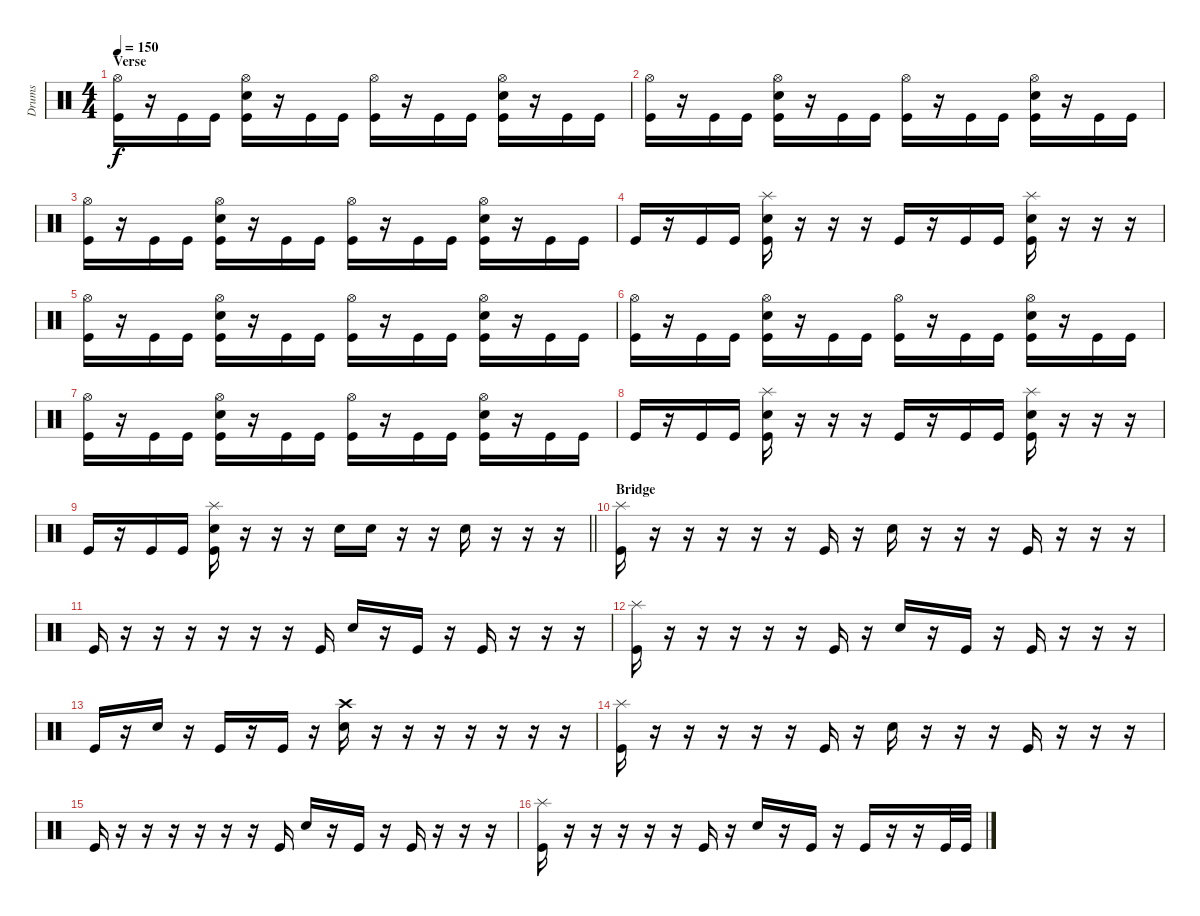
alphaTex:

\track ("Drums" "Drums") {instrument percussion}
\staff
\articulation defaults
\ts (4 4)
\section ("" "Verse")
\tempo 150
\clef neutral
\ks c
("Hi-Hat (open)" "Kick (hit)").16{dy f} r.16 "Kick (hit)".16 "Kick (hit)".16 ("Hi-Hat (open)" "Snare (hit) 2" "Kick (hit)").16 r.16 "Kick (hit)".16 "Kick (hit)".16 ("Hi-Hat (open)" "Kick (hit)").16 r.16 "Kick (hit)".16 "Kick (hit)".16 ("Hi-Hat (open)" "Snare (hit) 2" "Kick (hit)").16 r.16 "Kick (hit)".16 "Kick (hit)".16 |
("Hi-Hat (open)" "Kick (hit)").16 r.16 "Kick (hit)".16 "Kick (hit)".16 ("Hi-Hat (open)" "Snare (hit) 2" "Kick (hit)").16 r.16 "Kick (hit)".16 "Kick (hit)".16 ("Hi-Hat (open)" "Kick (hit)").16 r.16 "Kick (hit)".16 "Kick (hit)".16 ("Hi-Hat (open)" "Snare (hit) 2" "Kick (hit)").16 r.16 "Kick (hit)".16 "Kick (hit)".16 |
("Hi-Hat (open)" "Kick (hit)").16 r.16 "Kick (hit)".16 "Kick (hit)".16 ("Hi-Hat (open)" "Snare (hit) 2" "Kick (hit)").16 r.16 "Kick (hit)".16 "Kick (hit)".16 ("Hi-Hat (open)" "Kick (hit)").16 r.16 "Kick (hit)".16 "Kick (hit)".16 ("Hi-Hat (open)" "Snare (hit) 2" "Kick (hit)").16 r.16 "Kick (hit)".16 "Kick (hit)".16 |
"Kick (hit)".16 r.16 "Kick (hit)".16 "Kick (hit)".16 ("Splash (hit)" "Snare (hit) 2" "Kick (hit)").16 r.16 r.16 r.16 "Kick (hit)".16 r.16 "Kick (hit)".16 "Kick (hit)".16 ("Splash (hit)" "Snare (hit) 2" "Kick (hit)").16 r.16 r.16 r.16 |
("Hi-Hat (open)" "Kick (hit)").16 r.16 "Kick (hit)".16 "Kick (hit)".16 ("Hi-Hat (open)" "Snare (hit) 2" "Kick (hit)").16 r.16 "Kick (hit)".16 "Kick (hit)".16 ("Hi-Hat (open)" "Kick (hit)").16 r.16 "Kick (hit)".16 "Kick (hit)".16 ("Hi-Hat (open)" "Snare (hit) 2" "Kick (hit)").16 r.16 "Kick (hit)".16 "Kick (hit)".16 |
("Hi-Hat (open)" "Kick (hit)").16 r.16 "Kick (hit)".16 "Kick (hit)".16 ("Hi-Hat (open)" "Snare (hit) 2" "Kick (hit)").16 r.16 "Kick (hit)".16 "Kick (hit)".16 ("Hi-Hat (open)" "Kick (hit)").16 r.16 "Kick (hit)".16 "Kick (hit)".16 ("Hi-Hat (open)" "Snare (hit) 2" "Kick (hit)").16 r.16 "Kick (hit)".16 "Kick (hit)".16 |
("Hi-Hat (open)" "Kick (hit)").16 r.16 "Kick (hit)".16 "Kick (hit)".16 ("Hi-Hat (open)" "Snare (hit) 2" "Kick (hit)").16 r.16 "Kick (hit)".16 "Kick (hit)".16 ("Hi-Hat (open)" "Kick (hit)").16 r.16 "Kick (hit)".16 "Kick (hit)".16 ("Hi-Hat (open)" "Snare (hit) 2" "Kick (hit)").16 r.16 "Kick (hit)".16 "Kick (hit)".16 |
"Kick (hit)".16 r.16 "Kick (hit)".16 "Kick (hit)".16 ("Splash (hit)" "Snare (hit) 2" "Kick (hit)").16 r.16 r.16 r.16 "Kick (hit)".16 r.16 "Kick (hit)".16 "Kick (hit)".16 ("Splash (hit)" "Snare (hit) 2" "Kick (hit)").16 r.16 r.16 r.16 |
\barLineRight lightlight "Kick (hit)".16
r.16 "Kick (hit)".16 "Kick (hit)".16 ("Splash (hit)" "Snare (hit) 2" "Kick (hit)").16 r.16 r.16 r.16 "Snare (hit) 2".16 "Snare (hit) 2".16 r.16 r.16 "Snare (hit) 2".16 r.16 r.16 r.16 |
\section ("" "Bridge")
("Splash (hit)" "Kick (hit)").16 r.16 r.16 r.16 r.16 r.16 "Kick (hit)".16 r.16 "Snare (hit) 2".16 r.16 r.16 r.16 "Kick (hit)".16 r.16 r.16 r.16 |
"Kick (hit)".16 r.16 r.16 r.16 r.16 r.16 r.16 "Kick (hit)".16 "Snare (hit) 2".16 r.16 "Kick (hit)".16 r.16 "Kick (hit)".16 r.16 r.16 r.16 |
("Splash (hit)" "Kick (hit)").16 r.16 r.16 r.16 r.16 r.16 "Kick (hit)".16 r.16 "Snare (hit) 2".16 r.16 "Kick (hit)".16 r.16 "Kick (hit)".16 r.16 r.16 r.16 |
"Kick (hit)".16 r.16 "Snare (hit) 2".16 r.16 "Kick (hit)".16 r.16 "Kick (hit)".16 r.16 ("Crash high (hit)" "Snare (hit) 2").16 r.16 r.16 r.16 r.16 r.16 r.16 r.16 |
("Splash (hit)" "Kick (hit)").16 r.16 r.16 r.16 r.16 r.16 "Kick (hit)".16 r.16 "Snare (hit) 2".16 r.16 r.16 r.16 "Kick (hit)".16 r.16 r.16 r.16 |
"Kick (hit)".16 r.16 r.16 r.16 r.16 r.16 r.16 "Kick (hit)".16 "Snare (hit) 2".16 r.16 "Kick (hit)".16 r.16 "Kick (hit)".16 r.16 r.16 r.16 |
("Splash (hit)" "Kick (hit)").16 r.16 r.16 r.16 r.16 r.16 "Kick (hit)".16 r.16 "Snare (hit) 2".16 r.16 "Kick (hit)".16 r.16 "Kick (hit)".16 r.16 r.16 "Kick (hit)".32 "Kick (hit)".32
